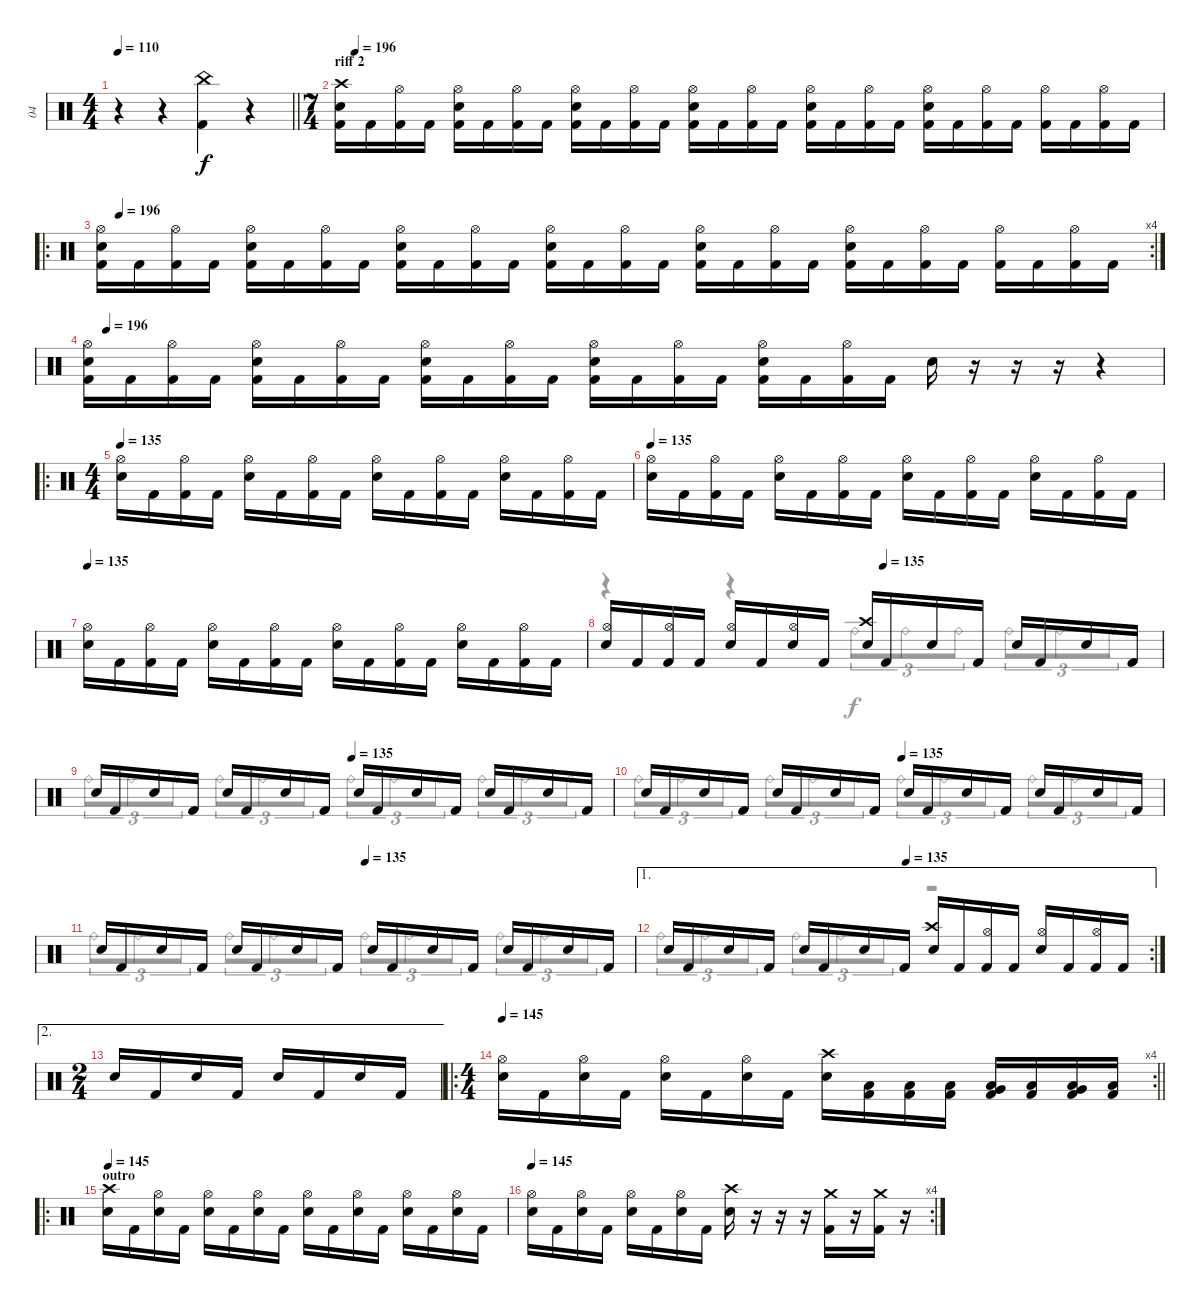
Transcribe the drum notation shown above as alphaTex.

\track ("04" "04") {instrument percussion}
\staff {score}
\articulation defaults
\voice
\ts (4 4)
\tempo 110
\clef neutral
\barLineRight lightlight
\ks c
r.4{dy f} r.4 ("China (hit)" "Kick (hit) 2").4 r.4 |
\ts (7 4)
\section ("" "riff 2")
\tempo (196 0.017857142857142856)
("Crash high (hit)" "Electric Snare (hit)" "Kick (hit) 2").16 "Kick (hit) 2".16 ("Hi-Hat (open)" "Kick (hit) 2").16 "Kick (hit) 2".16 ("Hi-Hat (open)" "Electric Snare (hit)" "Kick (hit) 2").16 "Kick (hit) 2".16 ("Hi-Hat (open)" "Kick (hit) 2").16 "Kick (hit) 2".16 ("Hi-Hat (open)" "Electric Snare (hit)" "Kick (hit) 2").16 "Kick (hit) 2".16 ("Hi-Hat (open)" "Kick (hit) 2").16 "Kick (hit) 2".16 ("Hi-Hat (open)" "Electric Snare (hit)" "Kick (hit) 2").16 "Kick (hit) 2".16 ("Hi-Hat (open)" "Kick (hit) 2").16 "Kick (hit) 2".16 ("Hi-Hat (open)" "Electric Snare (hit)" "Kick (hit) 2").16 "Kick (hit) 2".16 ("Hi-Hat (open)" "Kick (hit) 2").16 "Kick (hit) 2".16 ("Hi-Hat (open)" "Electric Snare (hit)" "Kick (hit) 2").16 "Kick (hit) 2".16 ("Hi-Hat (open)" "Kick (hit) 2").16 "Kick (hit) 2".16 ("Hi-Hat (open)" "Kick (hit) 2").16 "Kick (hit) 2".16 ("Hi-Hat (open)" "Kick (hit) 2").16 "Kick (hit) 2".16 |
\ro
\rc 4
\tempo (196 0.017857142857142856)
("Hi-Hat (open)" "Electric Snare (hit)" "Kick (hit) 2").16 "Kick (hit) 2".16 ("Hi-Hat (open)" "Kick (hit) 2").16 "Kick (hit) 2".16 ("Hi-Hat (open)" "Electric Snare (hit)" "Kick (hit) 2").16 "Kick (hit) 2".16 ("Hi-Hat (open)" "Kick (hit) 2").16 "Kick (hit) 2".16 ("Hi-Hat (open)" "Electric Snare (hit)" "Kick (hit) 2").16 "Kick (hit) 2".16 ("Hi-Hat (open)" "Kick (hit) 2").16 "Kick (hit) 2".16 ("Hi-Hat (open)" "Electric Snare (hit)" "Kick (hit) 2").16 "Kick (hit) 2".16 ("Hi-Hat (open)" "Kick (hit) 2").16 "Kick (hit) 2".16 ("Hi-Hat (open)" "Electric Snare (hit)" "Kick (hit) 2").16 "Kick (hit) 2".16 ("Hi-Hat (open)" "Kick (hit) 2").16 "Kick (hit) 2".16 ("Hi-Hat (open)" "Electric Snare (hit)" "Kick (hit) 2").16 "Kick (hit) 2".16 ("Hi-Hat (open)" "Kick (hit) 2").16 "Kick (hit) 2".16 ("Hi-Hat (open)" "Kick (hit) 2").16 "Kick (hit) 2".16 ("Hi-Hat (open)" "Kick (hit) 2").16 "Kick (hit) 2".16 |
\tempo (196 0.017857142857142856)
("Hi-Hat (open)" "Electric Snare (hit)" "Kick (hit) 2").16 "Kick (hit) 2".16 ("Hi-Hat (open)" "Kick (hit) 2").16 "Kick (hit) 2".16 ("Hi-Hat (open)" "Electric Snare (hit)" "Kick (hit) 2").16 "Kick (hit) 2".16 ("Hi-Hat (open)" "Kick (hit) 2").16 "Kick (hit) 2".16 ("Hi-Hat (open)" "Electric Snare (hit)" "Kick (hit) 2").16 "Kick (hit) 2".16 ("Hi-Hat (open)" "Kick (hit) 2").16 "Kick (hit) 2".16 ("Hi-Hat (open)" "Electric Snare (hit)" "Kick (hit) 2").16 "Kick (hit) 2".16 ("Hi-Hat (open)" "Kick (hit) 2").16 "Kick (hit) 2".16 ("Hi-Hat (open)" "Electric Snare (hit)" "Kick (hit) 2").16 "Kick (hit) 2".16 ("Hi-Hat (open)" "Kick (hit) 2").16 "Kick (hit) 2".16 "Electric Snare (hit)".16 r.16 r.16 r.16 r.4 |
\ro
\ts (4 4)
\tempo 135
("Hi-Hat (open)" "Electric Snare (hit)").16 "Kick (hit) 2".16 ("Hi-Hat (open)" "Kick (hit) 2").16 "Kick (hit) 2".16 ("Hi-Hat (open)" "Electric Snare (hit)").16 "Kick (hit) 2".16 ("Hi-Hat (open)" "Kick (hit) 2").16 "Kick (hit) 2".16 ("Hi-Hat (open)" "Electric Snare (hit)").16 "Kick (hit) 2".16 ("Hi-Hat (open)" "Kick (hit) 2").16 "Kick (hit) 2".16 ("Hi-Hat (open)" "Electric Snare (hit)").16 "Kick (hit) 2".16 ("Hi-Hat (open)" "Kick (hit) 2").16 "Kick (hit) 2".16 |
\tempo 135
("Hi-Hat (open)" "Electric Snare (hit)").16 "Kick (hit) 2".16 ("Hi-Hat (open)" "Kick (hit) 2").16 "Kick (hit) 2".16 ("Hi-Hat (open)" "Electric Snare (hit)").16 "Kick (hit) 2".16 ("Hi-Hat (open)" "Kick (hit) 2").16 "Kick (hit) 2".16 ("Hi-Hat (open)" "Electric Snare (hit)").16 "Kick (hit) 2".16 ("Hi-Hat (open)" "Kick (hit) 2").16 "Kick (hit) 2".16 ("Hi-Hat (open)" "Electric Snare (hit)").16 "Kick (hit) 2".16 ("Hi-Hat (open)" "Kick (hit) 2").16 "Kick (hit) 2".16 |
\tempo 135
("Hi-Hat (open)" "Electric Snare (hit)").16 "Kick (hit) 2".16 ("Hi-Hat (open)" "Kick (hit) 2").16 "Kick (hit) 2".16 ("Hi-Hat (open)" "Electric Snare (hit)").16 "Kick (hit) 2".16 ("Hi-Hat (open)" "Kick (hit) 2").16 "Kick (hit) 2".16 ("Hi-Hat (open)" "Electric Snare (hit)").16 "Kick (hit) 2".16 ("Hi-Hat (open)" "Kick (hit) 2").16 "Kick (hit) 2".16 ("Hi-Hat (open)" "Electric Snare (hit)").16 "Kick (hit) 2".16 ("Hi-Hat (open)" "Kick (hit) 2").16 "Kick (hit) 2".16 |
\tempo (135 0.5)
("Hi-Hat (open)" "Electric Snare (hit)").16 "Kick (hit) 2".16 ("Hi-Hat (open)" "Kick (hit) 2").16 "Kick (hit) 2".16 ("Hi-Hat (open)" "Electric Snare (hit)").16 "Kick (hit) 2".16 ("Hi-Hat (open)" "Electric Snare (hit)").16 "Kick (hit) 2".16 ("Crash high (hit)" "Electric Snare (hit)").16 "Kick (hit) 2".16 "Electric Snare (hit)".16 "Kick (hit) 2".16 "Electric Snare (hit)".16 "Kick (hit) 2".16 "Electric Snare (hit)".16 "Kick (hit) 2".16 |
\tempo (135 0.5)
"Electric Snare (hit)".16 "Kick (hit) 2".16 "Electric Snare (hit)".16 "Kick (hit) 2".16 "Electric Snare (hit)".16 "Kick (hit) 2".16 "Electric Snare (hit)".16 "Kick (hit) 2".16 "Electric Snare (hit)".16 "Kick (hit) 2".16 "Electric Snare (hit)".16 "Kick (hit) 2".16 "Electric Snare (hit)".16 "Kick (hit) 2".16 "Electric Snare (hit)".16 "Kick (hit) 2".16 |
\tempo (135 0.5)
"Electric Snare (hit)".16 "Kick (hit) 2".16 "Electric Snare (hit)".16 "Kick (hit) 2".16 "Electric Snare (hit)".16 "Kick (hit) 2".16 "Electric Snare (hit)".16 "Kick (hit) 2".16 "Electric Snare (hit)".16 "Kick (hit) 2".16 "Electric Snare (hit)".16 "Kick (hit) 2".16 "Electric Snare (hit)".16 "Kick (hit) 2".16 "Electric Snare (hit)".16 "Kick (hit) 2".16 |
\tempo (135 0.5)
"Electric Snare (hit)".16 "Kick (hit) 2".16 "Electric Snare (hit)".16 "Kick (hit) 2".16 "Electric Snare (hit)".16 "Kick (hit) 2".16 "Electric Snare (hit)".16 "Kick (hit) 2".16 "Electric Snare (hit)".16 "Kick (hit) 2".16 "Electric Snare (hit)".16 "Kick (hit) 2".16 "Electric Snare (hit)".16 "Kick (hit) 2".16 "Electric Snare (hit)".16 "Kick (hit) 2".16 |
\ae 1
\rc 2
\tempo (135 0.5)
"Electric Snare (hit)".16 "Kick (hit) 2".16 "Electric Snare (hit)".16 "Kick (hit) 2".16 "Electric Snare (hit)".16 "Kick (hit) 2".16 "Electric Snare (hit)".16 "Kick (hit) 2".16 ("Crash high (hit)" "Electric Snare (hit)").16 "Kick (hit) 2".16 ("Hi-Hat (open)" "Kick (hit) 2").16 "Kick (hit) 2".16 ("Hi-Hat (open)" "Electric Snare (hit)").16 "Kick (hit) 2".16 ("Hi-Hat (open)" "Kick (hit) 2").16 "Kick (hit) 2".16 |
\ae 2
\ts (2 4)
"Electric Snare (hit)".16 "Kick (hit) 2".16 "Electric Snare (hit)".16 "Kick (hit) 2".16 "Electric Snare (hit)".16 "Kick (hit) 2".16 "Electric Snare (hit)".16 "Kick (hit) 2".16 |
\ro
\rc 4
\ts (4 4)
\tempo 145
\barLineRight lightlight
("Hi-Hat (open)" "Electric Snare (hit)").16 "Kick (hit) 2".16 ("Hi-Hat (open)" "Electric Snare (hit)").16 "Kick (hit) 2".16 ("Hi-Hat (open)" "Electric Snare (hit)").16 "Kick (hit) 2".16 ("Hi-Hat (open)" "Electric Snare (hit)").16 "Kick (hit) 2".16 ("Crash high (hit)" "Electric Snare (hit)").16 ("Low Tom (hit)" "Kick (hit) 2").16 ("Low Tom (hit)" "Kick (hit) 2").16 ("Low Tom (hit)" "Kick (hit) 2").16 ("Very Low Tom (hit)" "Low Tom (hit)" "Kick (hit) 2").16 ("Low Tom (hit)" "Kick (hit) 2").16 ("Very Low Tom (hit)" "Low Tom (hit)" "Kick (hit) 2").16 ("Low Tom (hit)" "Kick (hit) 2").16 |
\ro
\section ("" "outro")
\tempo 145
("Crash high (hit)" "Electric Snare (hit)").16 "Kick (hit) 2".16 ("Hi-Hat (open)" "Electric Snare (hit)").16 "Kick (hit) 2".16 ("Hi-Hat (open)" "Electric Snare (hit)").16 "Kick (hit) 2".16 ("Hi-Hat (open)" "Electric Snare (hit)").16 "Kick (hit) 2".16 ("Hi-Hat (open)" "Electric Snare (hit)").16 "Kick (hit) 2".16 ("Hi-Hat (open)" "Electric Snare (hit)").16 "Kick (hit) 2".16 ("Hi-Hat (open)" "Electric Snare (hit)").16 "Kick (hit) 2".16 ("Hi-Hat (open)" "Electric Snare (hit)").16 "Kick (hit) 2".16 |
\rc 4
\tempo 145
("Hi-Hat (open)" "Electric Snare (hit)").16 "Kick (hit) 2".16 ("Hi-Hat (open)" "Electric Snare (hit)").16 "Kick (hit) 2".16 ("Hi-Hat (open)" "Electric Snare (hit)").16 "Kick (hit) 2".16 ("Hi-Hat (open)" "Electric Snare (hit)").16 "Kick (hit) 2".16 ("Crash high (hit)" "Electric Snare (hit)").16 r.16 r.16 r.16 ("Crash medium (hit)" "Kick (hit) 2").16 r.16 ("Crash medium (hit)" "Kick (hit) 2").16 r.16
\voice
\clef neutral
\ottava regular
\simile none
\barLineRight lightlight
\ks c
|
|
|
|
|
|
|
r.4 r.4 "Ride (bell)".8{tu (3 2)} "Ride (bell)".8{tu (3 2)} "Ride (bell)".8{tu (3 2)} "Ride (bell)".8{tu (3 2)} "Ride (bell)".8{tu (3 2)} "Ride (bell)".8{tu (3 2)} |
"Ride (bell)".8{tu (3 2)} "Ride (bell)".8{tu (3 2)} "Ride (bell)".8{tu (3 2)} "Ride (bell)".8{tu (3 2)} "Ride (bell)".8{tu (3 2)} "Ride (bell)".8{tu (3 2)} "Ride (bell)".8{tu (3 2)} "Ride (bell)".8{tu (3 2)} "Ride (bell)".8{tu (3 2)} "Ride (bell)".8{tu (3 2)} "Ride (bell)".8{tu (3 2)} "Ride (bell)".8{tu (3 2)} |
"Ride (bell)".8{tu (3 2)} "Ride (bell)".8{tu (3 2)} "Ride (bell)".8{tu (3 2)} "Ride (bell)".8{tu (3 2)} "Ride (bell)".8{tu (3 2)} "Ride (bell)".8{tu (3 2)} "Ride (bell)".8{tu (3 2)} "Ride (bell)".8{tu (3 2)} "Ride (bell)".8{tu (3 2)} "Ride (bell)".8{tu (3 2)} "Ride (bell)".8{tu (3 2)} "Ride (bell)".8{tu (3 2)} |
"Ride (bell)".8{tu (3 2)} "Ride (bell)".8{tu (3 2)} "Ride (bell)".8{tu (3 2)} "Ride (bell)".8{tu (3 2)} "Ride (bell)".8{tu (3 2)} "Ride (bell)".8{tu (3 2)} "Ride (bell)".8{tu (3 2)} "Ride (bell)".8{tu (3 2)} "Ride (bell)".8{tu (3 2)} "Ride (bell)".8{tu (3 2)} "Ride (bell)".8{tu (3 2)} "Ride (bell)".8{tu (3 2)} |
"Ride (bell)".8{tu (3 2)} "Ride (bell)".8{tu (3 2)} "Ride (bell)".8{tu (3 2)} "Ride (bell)".8{tu (3 2)} "Ride (bell)".8{tu (3 2)} "Ride (bell)".8{tu (3 2)} r.2 |
|
\barLineRight lightlight
|
|
